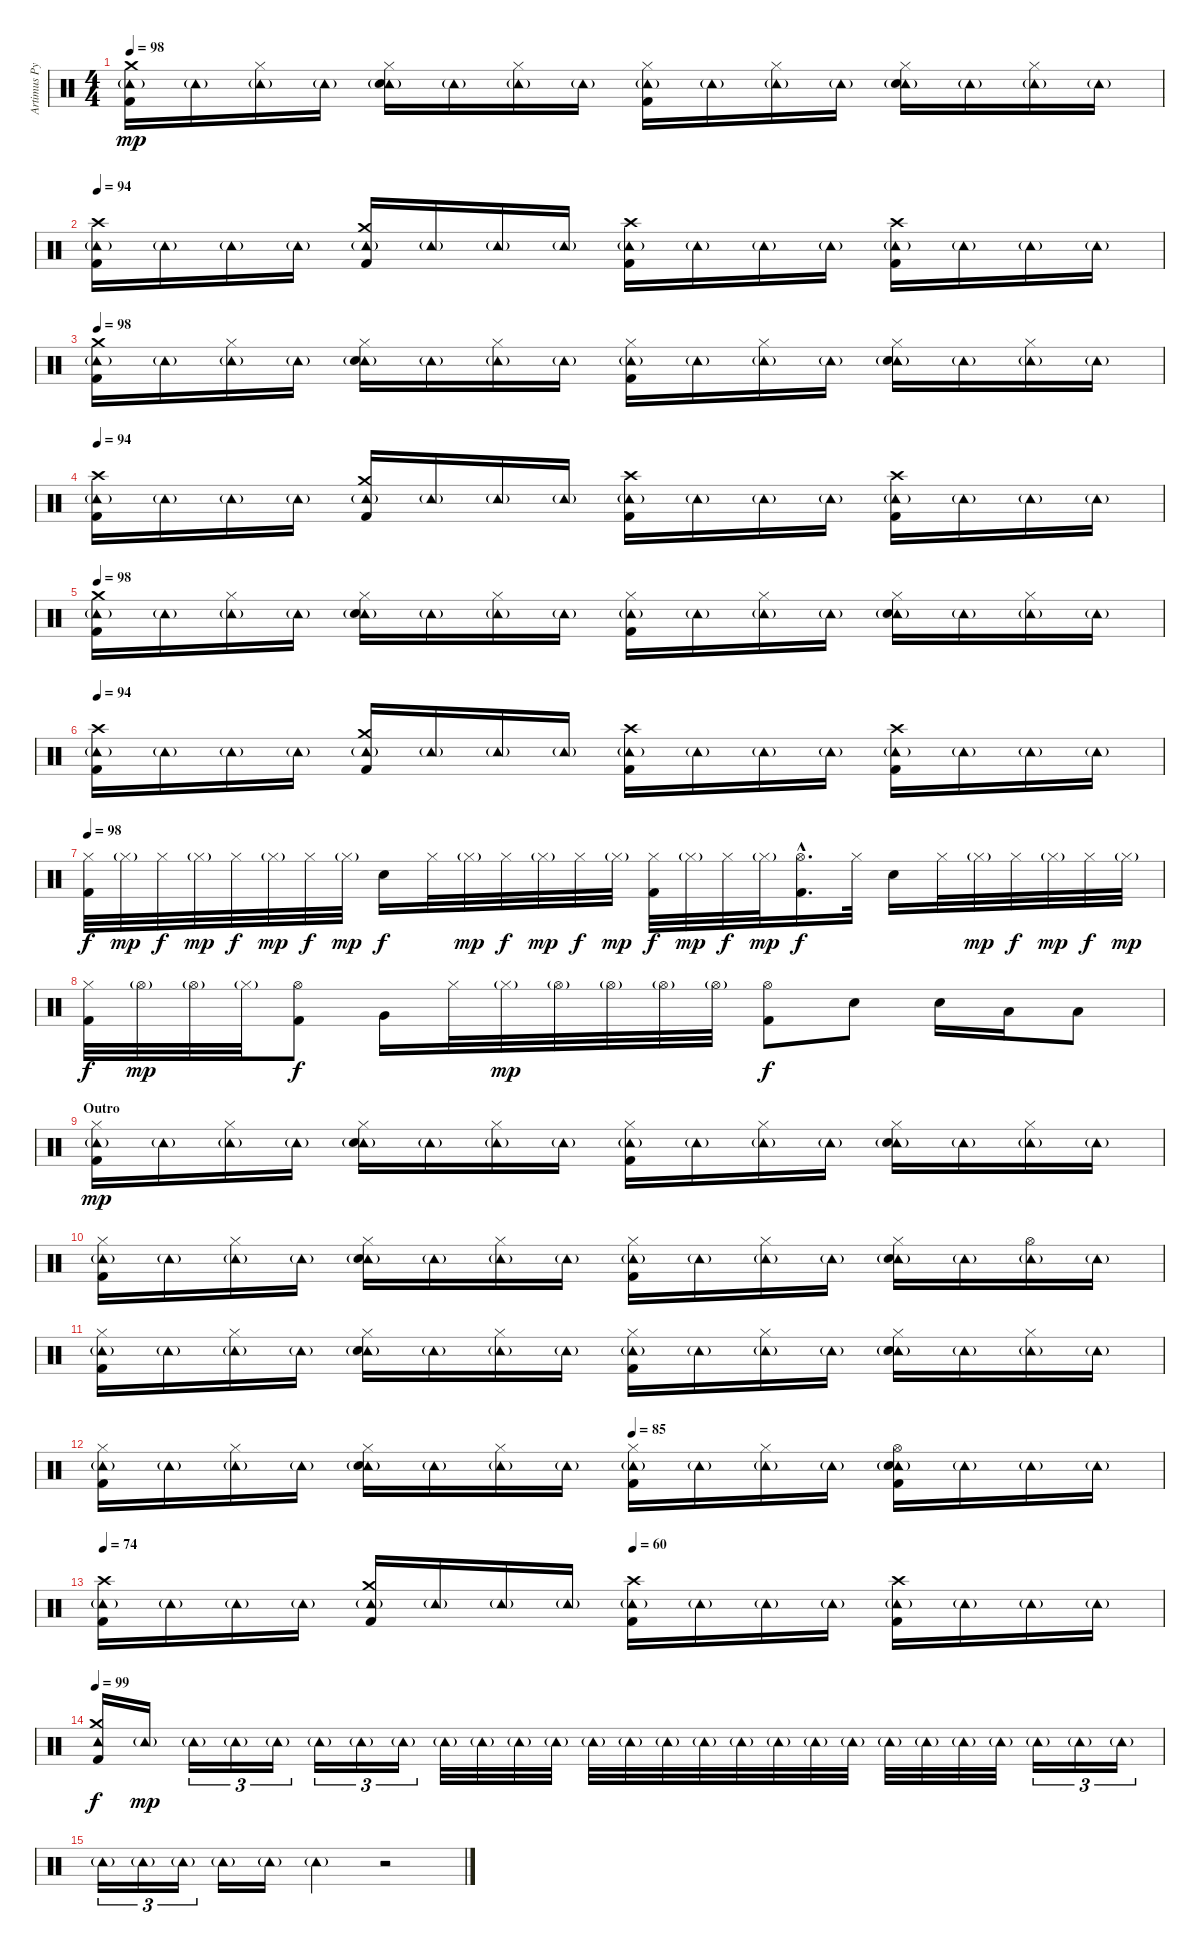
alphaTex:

\track ("Artimus Pyle (drums)" "Artimus Py") {instrument percussion}
\staff {score}
\articulation defaults
\ts (4 4)
\tempo 98
\clef neutral
\ks c
("Tambourine (hit)"{g} "Crash medium (hit)" "Kick (hit) 2").16{dy mp} "Tambourine (hit)"{g}.16 ("Tambourine (hit)"{g} "Hi-Hat (closed)").16 "Tambourine (hit)"{g}.16 ("Tambourine (hit)"{g} "Hi-Hat (closed)" "Electric Snare (hit)").16 "Tambourine (hit)"{g}.16 ("Tambourine (hit)"{g} "Hi-Hat (closed)").16 "Tambourine (hit)"{g}.16 ("Tambourine (hit)"{g} "Hi-Hat (closed)" "Kick (hit) 2").16 "Tambourine (hit)"{g}.16 ("Tambourine (hit)"{g} "Hi-Hat (closed)").16 "Tambourine (hit)"{g}.16 ("Tambourine (hit)"{g} "Hi-Hat (closed)" "Electric Snare (hit)").16 "Tambourine (hit)"{g}.16 ("Tambourine (hit)"{g} "Hi-Hat (closed)").16 "Tambourine (hit)"{g}.16 |
\tempo 94
("Tambourine (hit)"{g} "Crash high (hit)" "Kick (hit) 2").16 "Tambourine (hit)"{g}.16 "Tambourine (hit)"{g}.16 "Tambourine (hit)"{g}.16 ("Tambourine (hit)"{g} "Crash medium (hit)" "Kick (hit) 2").16 "Tambourine (hit)"{g}.16 "Tambourine (hit)"{g}.16 "Tambourine (hit)"{g}.16 ("Tambourine (hit)"{g} "Crash high (hit)" "Kick (hit) 2").16 "Tambourine (hit)"{g}.16 "Tambourine (hit)"{g}.16 "Tambourine (hit)"{g}.16 ("Tambourine (hit)"{g} "Crash high (hit)" "Kick (hit) 2").16 "Tambourine (hit)"{g}.16 "Tambourine (hit)"{g}.16 "Tambourine (hit)"{g}.16 |
\tempo 98
("Tambourine (hit)"{g} "Crash medium (hit)" "Kick (hit) 2").16 "Tambourine (hit)"{g}.16 ("Tambourine (hit)"{g} "Hi-Hat (closed)").16 "Tambourine (hit)"{g}.16 ("Tambourine (hit)"{g} "Hi-Hat (closed)" "Electric Snare (hit)").16 "Tambourine (hit)"{g}.16 ("Tambourine (hit)"{g} "Hi-Hat (closed)").16 "Tambourine (hit)"{g}.16 ("Tambourine (hit)"{g} "Hi-Hat (closed)" "Kick (hit) 2").16 "Tambourine (hit)"{g}.16 ("Tambourine (hit)"{g} "Hi-Hat (closed)").16 "Tambourine (hit)"{g}.16 ("Tambourine (hit)"{g} "Hi-Hat (closed)" "Electric Snare (hit)").16 "Tambourine (hit)"{g}.16 ("Tambourine (hit)"{g} "Hi-Hat (closed)").16 "Tambourine (hit)"{g}.16 |
\tempo 94
("Tambourine (hit)"{g} "Crash high (hit)" "Kick (hit) 2").16 "Tambourine (hit)"{g}.16 "Tambourine (hit)"{g}.16 "Tambourine (hit)"{g}.16 ("Tambourine (hit)"{g} "Crash medium (hit)" "Kick (hit) 2").16 "Tambourine (hit)"{g}.16 "Tambourine (hit)"{g}.16 "Tambourine (hit)"{g}.16 ("Tambourine (hit)"{g} "Crash high (hit)" "Kick (hit) 2").16 "Tambourine (hit)"{g}.16 "Tambourine (hit)"{g}.16 "Tambourine (hit)"{g}.16 ("Tambourine (hit)"{g} "Crash high (hit)" "Kick (hit) 2").16 "Tambourine (hit)"{g}.16 "Tambourine (hit)"{g}.16 "Tambourine (hit)"{g}.16 |
\tempo 98
("Tambourine (hit)"{g} "Crash medium (hit)" "Kick (hit) 2").16 "Tambourine (hit)"{g}.16 ("Tambourine (hit)"{g} "Hi-Hat (closed)").16 "Tambourine (hit)"{g}.16 ("Tambourine (hit)"{g} "Hi-Hat (closed)" "Electric Snare (hit)").16 "Tambourine (hit)"{g}.16 ("Tambourine (hit)"{g} "Hi-Hat (closed)").16 "Tambourine (hit)"{g}.16 ("Tambourine (hit)"{g} "Hi-Hat (closed)" "Kick (hit) 2").16 "Tambourine (hit)"{g}.16 ("Tambourine (hit)"{g} "Hi-Hat (closed)").16 "Tambourine (hit)"{g}.16 ("Tambourine (hit)"{g} "Hi-Hat (closed)" "Electric Snare (hit)").16 "Tambourine (hit)"{g}.16 ("Tambourine (hit)"{g} "Hi-Hat (closed)").16 "Tambourine (hit)"{g}.16 |
\tempo 94
("Tambourine (hit)"{g} "Crash high (hit)" "Kick (hit) 2").16 "Tambourine (hit)"{g}.16 "Tambourine (hit)"{g}.16 "Tambourine (hit)"{g}.16 ("Tambourine (hit)"{g} "Crash medium (hit)" "Kick (hit) 2").16 "Tambourine (hit)"{g}.16 "Tambourine (hit)"{g}.16 "Tambourine (hit)"{g}.16 ("Tambourine (hit)"{g} "Crash high (hit)" "Kick (hit) 2").16 "Tambourine (hit)"{g}.16 "Tambourine (hit)"{g}.16 "Tambourine (hit)"{g}.16 ("Tambourine (hit)"{g} "Crash high (hit)" "Kick (hit) 2").16 "Tambourine (hit)"{g}.16 "Tambourine (hit)"{g}.16 "Tambourine (hit)"{g}.16 |
\tempo 98
("Hi-Hat (closed)" "Kick (hit) 2").32{dy f} "Hi-Hat (closed)"{g}.32{dy mp} "Hi-Hat (closed)".32{dy f} "Hi-Hat (closed)"{g}.32{dy mp} "Hi-Hat (closed)".32{dy f} "Hi-Hat (closed)"{g}.32{dy mp} "Hi-Hat (closed)".32{dy f} "Hi-Hat (closed)"{g}.32{dy mp} "Electric Snare (hit)".16{dy f} "Hi-Hat (closed)".32 "Hi-Hat (closed)"{g}.32{dy mp} "Hi-Hat (closed)".32{dy f} "Hi-Hat (closed)"{g}.32{dy mp} "Hi-Hat (closed)".32{dy f} "Hi-Hat (closed)"{g}.32{dy mp} ("Hi-Hat (closed)" "Kick (hit) 2").32{dy f} "Hi-Hat (closed)"{g}.32{dy mp} "Hi-Hat (closed)".32{dy f} "Hi-Hat (closed)"{g}.32{dy mp} ("Hi-Hat (open)"{hac} "Kick (hit) 2"{hac}).16{d dy f} "Hi-Hat (closed)".32 "Electric Snare (hit)".16 "Hi-Hat (closed)".32 "Hi-Hat (closed)"{g}.32{dy mp} "Hi-Hat (closed)".32{dy f} "Hi-Hat (closed)"{g}.32{dy mp} "Hi-Hat (closed)".32{dy f} "Hi-Hat (closed)"{g}.32{dy mp} |
("Hi-Hat (closed)" "Kick (hit) 2").32{dy f} "Hi-Hat (open)"{g}.32{dy mp} "Hi-Hat (open)"{g}.32 "Hi-Hat (closed)"{g}.32 ("Hi-Hat (open)" "Kick (hit) 2").8{dy f} "Very Low Tom (hit)".16 "Hi-Hat (closed)".32 "Hi-Hat (closed)"{g}.32{dy mp} "Hi-Hat (open)"{g}.32 "Hi-Hat (open)"{g}.32 "Hi-Hat (open)"{g}.32 "Hi-Hat (open)"{g}.32 ("Hi-Hat (open)" "Kick (hit) 2").8{dy f} "Electric Snare (hit)".8 "Electric Snare (hit)".16 "Low Tom (hit)".16 "Low Tom (hit)".8 |
\section ("" "Outro")
("Tambourine (hit)"{g} "Hi-Hat (closed)" "Kick (hit) 2").16{dy mp} "Tambourine (hit)"{g}.16 ("Tambourine (hit)"{g} "Hi-Hat (closed)").16 "Tambourine (hit)"{g}.16 ("Tambourine (hit)"{g} "Hi-Hat (closed)" "Electric Snare (hit)").16 "Tambourine (hit)"{g}.16 ("Tambourine (hit)"{g} "Hi-Hat (closed)").16 "Tambourine (hit)"{g}.16 ("Tambourine (hit)"{g} "Hi-Hat (closed)" "Kick (hit) 2").16 "Tambourine (hit)"{g}.16 ("Tambourine (hit)"{g} "Hi-Hat (closed)").16 "Tambourine (hit)"{g}.16 ("Tambourine (hit)"{g} "Hi-Hat (closed)" "Electric Snare (hit)").16 "Tambourine (hit)"{g}.16 ("Tambourine (hit)"{g} "Hi-Hat (closed)").16 "Tambourine (hit)"{g}.16 |
("Tambourine (hit)"{g} "Hi-Hat (closed)" "Kick (hit) 2").16 "Tambourine (hit)"{g}.16 ("Tambourine (hit)"{g} "Hi-Hat (closed)").16 "Tambourine (hit)"{g}.16 ("Tambourine (hit)"{g} "Hi-Hat (closed)" "Electric Snare (hit)").16 "Tambourine (hit)"{g}.16 ("Tambourine (hit)"{g} "Hi-Hat (closed)").16 "Tambourine (hit)"{g}.16 ("Tambourine (hit)"{g} "Hi-Hat (closed)" "Kick (hit) 2").16 "Tambourine (hit)"{g}.16 ("Tambourine (hit)"{g} "Hi-Hat (closed)").16 "Tambourine (hit)"{g}.16 ("Tambourine (hit)"{g} "Hi-Hat (closed)" "Electric Snare (hit)").16 "Tambourine (hit)"{g}.16 ("Tambourine (hit)"{g} "Hi-Hat (open)").16 "Tambourine (hit)"{g}.16 |
("Tambourine (hit)"{g} "Hi-Hat (closed)" "Kick (hit) 2").16 "Tambourine (hit)"{g}.16 ("Tambourine (hit)"{g} "Hi-Hat (closed)").16 "Tambourine (hit)"{g}.16 ("Tambourine (hit)"{g} "Hi-Hat (closed)" "Electric Snare (hit)").16 "Tambourine (hit)"{g}.16 ("Tambourine (hit)"{g} "Hi-Hat (closed)").16 "Tambourine (hit)"{g}.16 ("Tambourine (hit)"{g} "Hi-Hat (closed)" "Kick (hit) 2").16 "Tambourine (hit)"{g}.16 ("Tambourine (hit)"{g} "Hi-Hat (closed)").16 "Tambourine (hit)"{g}.16 ("Tambourine (hit)"{g} "Hi-Hat (closed)" "Electric Snare (hit)").16 "Tambourine (hit)"{g}.16 ("Tambourine (hit)"{g} "Hi-Hat (closed)").16 "Tambourine (hit)"{g}.16 |
\tempo (85 0.5)
("Tambourine (hit)"{g} "Hi-Hat (closed)" "Kick (hit) 2").16 "Tambourine (hit)"{g}.16 ("Tambourine (hit)"{g} "Hi-Hat (closed)").16 "Tambourine (hit)"{g}.16 ("Tambourine (hit)"{g} "Hi-Hat (closed)" "Electric Snare (hit)").16 "Tambourine (hit)"{g}.16 ("Tambourine (hit)"{g} "Hi-Hat (closed)").16 "Tambourine (hit)"{g}.16 ("Tambourine (hit)"{g} "Hi-Hat (closed)" "Kick (hit) 2").16 "Tambourine (hit)"{g}.16 ("Tambourine (hit)"{g} "Hi-Hat (closed)").16 "Tambourine (hit)"{g}.16 ("Tambourine (hit)"{g} "Hi-Hat (open)" "Electric Snare (hit)" "Kick (hit) 2").16 "Tambourine (hit)"{g}.16 "Tambourine (hit)"{g}.16 "Tambourine (hit)"{g}.16 |
\tempo 74
\tempo (60 0.5)
("Tambourine (hit)"{g} "Crash high (hit)" "Kick (hit) 2").16 "Tambourine (hit)"{g}.16 "Tambourine (hit)"{g}.16 "Tambourine (hit)"{g}.16 ("Tambourine (hit)"{g} "Crash medium (hit)" "Kick (hit) 2").16 "Tambourine (hit)"{g}.16 "Tambourine (hit)"{g}.16 "Tambourine (hit)"{g}.16 ("Tambourine (hit)"{g} "Crash high (hit)" "Kick (hit) 2").16 "Tambourine (hit)"{g}.16 "Tambourine (hit)"{g}.16 "Tambourine (hit)"{g}.16 ("Tambourine (hit)"{g} "Crash high (hit)" "Kick (hit) 2").16 "Tambourine (hit)"{g}.16 "Tambourine (hit)"{g}.16 "Tambourine (hit)"{g}.16 |
\tempo 99
("Tambourine (hit)" "Crash medium (hit)" "Kick (hit) 2").16{dy f} "Tambourine (hit)"{g}.16{dy mp} "Tambourine (hit)"{g}.16{tu (3 2)} "Tambourine (hit)"{g}.16{tu (3 2)} "Tambourine (hit)"{g}.16{tu (3 2)} "Tambourine (hit)"{g}.16{tu (3 2)} "Tambourine (hit)"{g}.16{tu (3 2)} "Tambourine (hit)"{g}.16{tu (3 2)} "Tambourine (hit)"{g}.32 "Tambourine (hit)"{g}.32 "Tambourine (hit)"{g}.32 "Tambourine (hit)"{g}.32 "Tambourine (hit)"{g}.32 "Tambourine (hit)"{g}.32 "Tambourine (hit)"{g}.32 "Tambourine (hit)"{g}.32 "Tambourine (hit)"{g}.32 "Tambourine (hit)"{g}.32 "Tambourine (hit)"{g}.32 "Tambourine (hit)"{g}.32 "Tambourine (hit)"{g}.32 "Tambourine (hit)"{g}.32 "Tambourine (hit)"{g}.32 "Tambourine (hit)"{g}.32 "Tambourine (hit)"{g}.16{tu (3 2)} "Tambourine (hit)"{g}.16{tu (3 2)} "Tambourine (hit)"{g}.16{tu (3 2)} |
"Tambourine (hit)"{g}.16{tu (3 2)} "Tambourine (hit)"{g}.16{tu (3 2)} "Tambourine (hit)"{g}.16{tu (3 2)} "Tambourine (hit)"{g}.16 "Tambourine (hit)"{g}.16 "Tambourine (hit)"{g}.4 r.2
